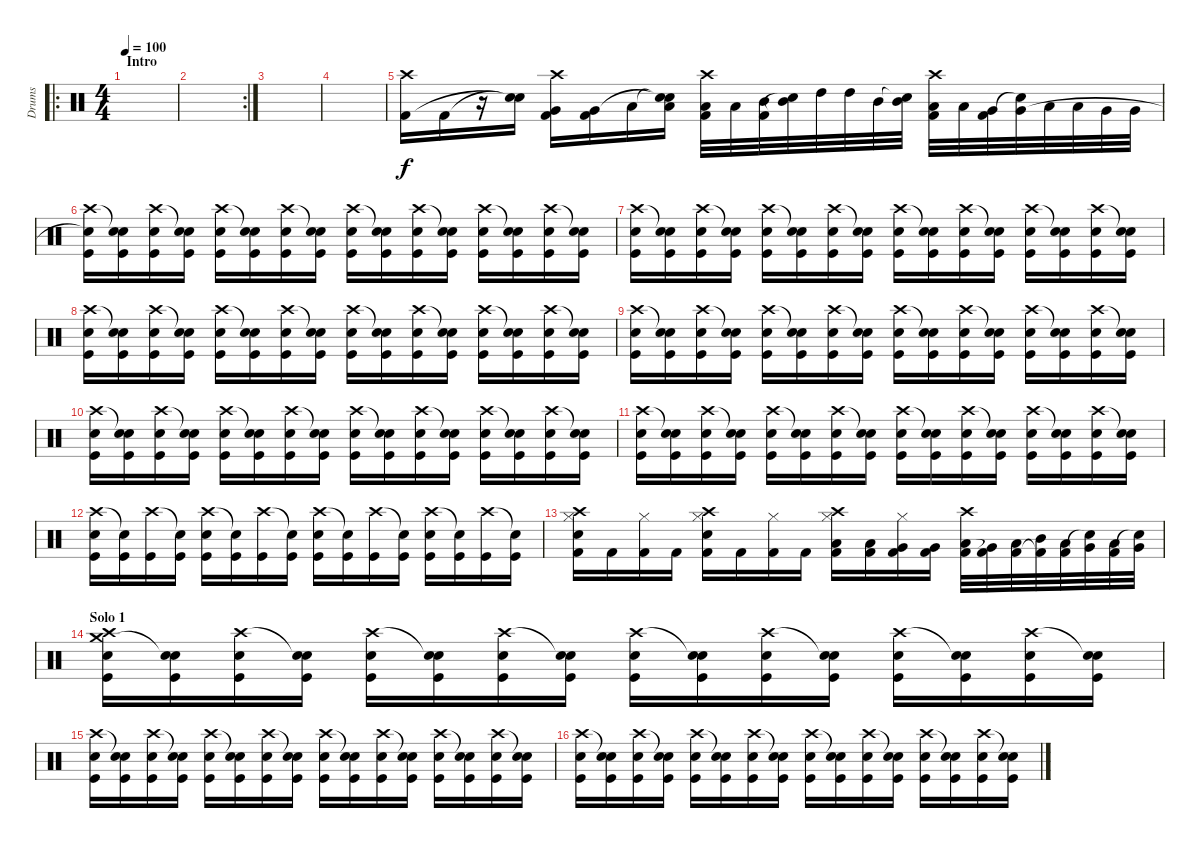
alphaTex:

\track ("Drums" "Drums") {instrument percussion}
\staff {score}
\articulation defaults
\ro
\ts (4 4)
\section ("" "Intro")
\tempo 100
\clef neutral
\ks c
|
\rc 2
|
|
|
("Crash high (hit)" "Kick (hit) 2").16 "Kick (hit) 2".16 r.16 ("Snare (hit)"{t} "Snare (hit)"{t}).16 ("Crash high (hit)" "Kick (hit) 2" "Very Low Tom (hit)").16 ("Kick (hit) 2" "Very Low Tom (hit)").16 "Low Floor Tom (hit)".16 ("Snare (hit)"{t} "Snare (hit)"{t} "Low Tom (hit)").16 ("Crash high (hit)" "Kick (hit) 2" "Low Tom (hit)").32 "Low Tom (hit)".32 ("Kick (hit) 2" "Mid Tom (hit)").32 ("Snare (hit)"{t} "Mid Tom (hit)").32 "High Tom (hit)".32 "High Tom (hit)".32 "Mid Tom (hit)".32 ("Snare (hit)"{t} "Mid Tom (hit)").32 ("Crash high (hit)" "Kick (hit) 2" "Low Tom (hit)").32 "Low Tom (hit)".32 ("Kick (hit) 2" "Very Low Tom (hit)").32 ("Snare (hit)"{t} "Very Low Tom (hit)").32 "Low Floor Tom (hit)".32 "Low Floor Tom (hit)".32 "Very Low Tom (hit)".32 "Very Low Tom (hit)".32 |
("Crash high (hit)" "Electric Snare (hit)"{t} "Kick (hit)").16 ("Snare (hit)"{t} "Electric Snare (hit)" "Kick (hit)").16 ("Crash high (hit)" "Electric Snare (hit)" "Kick (hit)").16 ("Snare (hit)"{t} "Electric Snare (hit)" "Kick (hit)").16 ("Crash high (hit)" "Electric Snare (hit)" "Kick (hit)").16 ("Snare (hit)"{t} "Electric Snare (hit)" "Kick (hit)").16 ("Crash high (hit)" "Electric Snare (hit)" "Kick (hit)").16 ("Snare (hit)"{t} "Electric Snare (hit)" "Kick (hit)").16 ("Crash high (hit)" "Electric Snare (hit)" "Kick (hit)").16 ("Snare (hit)"{t} "Electric Snare (hit)" "Kick (hit)").16 ("Crash high (hit)" "Electric Snare (hit)" "Kick (hit)").16 ("Snare (hit)"{t} "Electric Snare (hit)" "Kick (hit)").16 ("Crash high (hit)" "Electric Snare (hit)" "Kick (hit)").16 ("Snare (hit)"{t} "Electric Snare (hit)" "Kick (hit)").16 ("Crash high (hit)" "Electric Snare (hit)" "Kick (hit)").16 ("Snare (hit)"{t} "Electric Snare (hit)" "Kick (hit)").16 |
("Crash high (hit)" "Electric Snare (hit)" "Kick (hit)").16 ("Snare (hit)"{t} "Electric Snare (hit)" "Kick (hit)").16 ("Crash high (hit)" "Electric Snare (hit)" "Kick (hit)").16 ("Snare (hit)"{t} "Electric Snare (hit)" "Kick (hit)").16 ("Crash high (hit)" "Electric Snare (hit)" "Kick (hit)").16 ("Snare (hit)"{t} "Electric Snare (hit)" "Kick (hit)").16 ("Crash high (hit)" "Electric Snare (hit)" "Kick (hit)").16 ("Snare (hit)"{t} "Electric Snare (hit)" "Kick (hit)").16 ("Crash high (hit)" "Electric Snare (hit)" "Kick (hit)").16 ("Snare (hit)"{t} "Electric Snare (hit)" "Kick (hit)").16 ("Crash high (hit)" "Electric Snare (hit)" "Kick (hit)").16 ("Snare (hit)"{t} "Electric Snare (hit)" "Kick (hit)").16 ("Crash high (hit)" "Electric Snare (hit)" "Kick (hit)").16 ("Snare (hit)"{t} "Electric Snare (hit)" "Kick (hit)").16 ("Crash high (hit)" "Electric Snare (hit)" "Kick (hit)").16 ("Snare (hit)"{t} "Electric Snare (hit)" "Kick (hit)").16 |
("Crash high (hit)" "Electric Snare (hit)" "Kick (hit)").16 ("Snare (hit)"{t} "Electric Snare (hit)" "Kick (hit)").16 ("Crash high (hit)" "Electric Snare (hit)" "Kick (hit)").16 ("Snare (hit)"{t} "Electric Snare (hit)" "Kick (hit)").16 ("Crash high (hit)" "Electric Snare (hit)" "Kick (hit)").16 ("Snare (hit)"{t} "Electric Snare (hit)" "Kick (hit)").16 ("Crash high (hit)" "Electric Snare (hit)" "Kick (hit)").16 ("Snare (hit)"{t} "Electric Snare (hit)" "Kick (hit)").16 ("Crash high (hit)" "Electric Snare (hit)" "Kick (hit)").16 ("Snare (hit)"{t} "Electric Snare (hit)" "Kick (hit)").16 ("Crash high (hit)" "Electric Snare (hit)" "Kick (hit)").16 ("Snare (hit)"{t} "Electric Snare (hit)" "Kick (hit)").16 ("Crash high (hit)" "Electric Snare (hit)" "Kick (hit)").16 ("Snare (hit)"{t} "Electric Snare (hit)" "Kick (hit)").16 ("Crash high (hit)" "Electric Snare (hit)" "Kick (hit)").16 ("Snare (hit)"{t} "Electric Snare (hit)" "Kick (hit)").16 |
("Crash high (hit)" "Electric Snare (hit)" "Kick (hit)").16 ("Snare (hit)"{t} "Electric Snare (hit)" "Kick (hit)").16 ("Crash high (hit)" "Electric Snare (hit)" "Kick (hit)").16 ("Snare (hit)"{t} "Electric Snare (hit)" "Kick (hit)").16 ("Crash high (hit)" "Electric Snare (hit)" "Kick (hit)").16 ("Snare (hit)"{t} "Electric Snare (hit)" "Kick (hit)").16 ("Crash high (hit)" "Electric Snare (hit)" "Kick (hit)").16 ("Snare (hit)"{t} "Electric Snare (hit)" "Kick (hit)").16 ("Crash high (hit)" "Electric Snare (hit)" "Kick (hit)").16 ("Snare (hit)"{t} "Electric Snare (hit)" "Kick (hit)").16 ("Crash high (hit)" "Electric Snare (hit)" "Kick (hit)").16 ("Snare (hit)"{t} "Electric Snare (hit)" "Kick (hit)").16 ("Crash high (hit)" "Electric Snare (hit)" "Kick (hit)").16 ("Snare (hit)"{t} "Electric Snare (hit)" "Kick (hit)").16 ("Crash high (hit)" "Electric Snare (hit)" "Kick (hit)").16 ("Snare (hit)"{t} "Electric Snare (hit)" "Kick (hit)").16 |
("Crash high (hit)" "Electric Snare (hit)" "Kick (hit)").16 ("Snare (hit)"{t} "Electric Snare (hit)" "Kick (hit)").16 ("Crash high (hit)" "Electric Snare (hit)" "Kick (hit)").16 ("Snare (hit)"{t} "Electric Snare (hit)" "Kick (hit)").16 ("Crash high (hit)" "Electric Snare (hit)" "Kick (hit)").16 ("Snare (hit)"{t} "Electric Snare (hit)" "Kick (hit)").16 ("Crash high (hit)" "Electric Snare (hit)" "Kick (hit)").16 ("Snare (hit)"{t} "Electric Snare (hit)" "Kick (hit)").16 ("Crash high (hit)" "Electric Snare (hit)" "Kick (hit)").16 ("Snare (hit)"{t} "Electric Snare (hit)" "Kick (hit)").16 ("Crash high (hit)" "Electric Snare (hit)" "Kick (hit)").16 ("Snare (hit)"{t} "Electric Snare (hit)" "Kick (hit)").16 ("Crash high (hit)" "Electric Snare (hit)" "Kick (hit)").16 ("Snare (hit)"{t} "Electric Snare (hit)" "Kick (hit)").16 ("Crash high (hit)" "Electric Snare (hit)" "Kick (hit)").16 ("Snare (hit)"{t} "Electric Snare (hit)" "Kick (hit)").16 |
("Crash high (hit)" "Electric Snare (hit)" "Kick (hit)").16 ("Snare (hit)"{t} "Electric Snare (hit)" "Kick (hit)").16 ("Crash high (hit)" "Electric Snare (hit)" "Kick (hit)").16 ("Snare (hit)"{t} "Electric Snare (hit)" "Kick (hit)").16 ("Crash high (hit)" "Electric Snare (hit)" "Kick (hit)").16 ("Snare (hit)"{t} "Electric Snare (hit)" "Kick (hit)").16 ("Crash high (hit)" "Electric Snare (hit)" "Kick (hit)").16 ("Snare (hit)"{t} "Electric Snare (hit)" "Kick (hit)").16 ("Crash high (hit)" "Electric Snare (hit)" "Kick (hit)").16 ("Snare (hit)"{t} "Electric Snare (hit)" "Kick (hit)").16 ("Crash high (hit)" "Electric Snare (hit)" "Kick (hit)").16 ("Snare (hit)"{t} "Electric Snare (hit)" "Kick (hit)").16 ("Crash high (hit)" "Electric Snare (hit)" "Kick (hit)").16 ("Snare (hit)"{t} "Electric Snare (hit)" "Kick (hit)").16 ("Crash high (hit)" "Electric Snare (hit)" "Kick (hit)").16 ("Snare (hit)"{t} "Electric Snare (hit)" "Kick (hit)").16 |
("Crash high (hit)" "Electric Snare (hit)" "Kick (hit)").16 ("Snare (hit)"{t} "Kick (hit)").16 ("Crash high (hit)" "Kick (hit)").16 ("Snare (hit)"{t} "Kick (hit)").16 ("Crash high (hit)" "Electric Snare (hit)" "Kick (hit)").16 ("Snare (hit)"{t} "Kick (hit)").16 ("Crash high (hit)" "Kick (hit)").16 ("Snare (hit)"{t} "Kick (hit)").16 ("Crash high (hit)" "Electric Snare (hit)" "Kick (hit)").16 ("Snare (hit)"{t} "Kick (hit)").16 ("Crash high (hit)" "Kick (hit)").16 ("Snare (hit)"{t} "Kick (hit)").16 ("Crash high (hit)" "Electric Snare (hit)" "Kick (hit)").16 ("Snare (hit)"{t} "Kick (hit)").16 ("Crash high (hit)" "Kick (hit)").16 ("Snare (hit)"{t} "Kick (hit)").16 |
("Hi-Hat (closed)" "Crash high (hit)" "Electric Snare (hit)" "Kick (hit) 2").16 "Kick (hit) 2".16 ("Hi-Hat (closed)" "Kick (hit) 2").16 "Kick (hit) 2".16 ("Hi-Hat (closed)" "Crash high (hit)" "Electric Snare (hit)" "Kick (hit) 2").16 "Kick (hit) 2".16 ("Hi-Hat (closed)" "Kick (hit) 2").16 "Kick (hit) 2".16 ("Hi-Hat (closed)" "Crash high (hit)" "Low Floor Tom (hit)" "Kick (hit) 2").16 ("Low Floor Tom (hit)" "Kick (hit) 2").16 ("Hi-Hat (closed)" "Very Low Tom (hit)" "Kick (hit) 2").16 ("Very Low Tom (hit)" "Kick (hit) 2").16 ("Crash high (hit)" "Low Floor Tom (hit)" "Kick (hit) 2").32 ("Very Low Tom (hit)" "Kick (hit) 2"{t}).32 ("Low Tom (hit)" "Kick (hit) 2").32 ("Mid Tom (hit)" "Kick (hit) 2"{t}).32 ("Low Tom (hit)" "Kick (hit) 2").32 ("Very Low Tom (hit)" "Snare (hit)"{t}).32 ("Low Floor Tom (hit)" "Kick (hit) 2").32 ("Very Low Tom (hit)" "Snare (hit)"{t}).32 |
\section ("" "Solo 1")
("Crash medium (hit)" "Crash high (hit)" "Electric Snare (hit)" "Kick (hit)").16 ("Snare (hit)"{t} "Electric Snare (hit)" "Kick (hit)").16 ("Crash high (hit)" "Electric Snare (hit)" "Kick (hit)").16 ("Snare (hit)"{t} "Electric Snare (hit)" "Kick (hit)").16 ("Crash high (hit)" "Electric Snare (hit)" "Kick (hit)").16 ("Snare (hit)"{t} "Electric Snare (hit)" "Kick (hit)").16 ("Crash high (hit)" "Electric Snare (hit)" "Kick (hit)").16 ("Snare (hit)"{t} "Electric Snare (hit)" "Kick (hit)").16 ("Crash high (hit)" "Electric Snare (hit)" "Kick (hit)").16 ("Snare (hit)"{t} "Electric Snare (hit)" "Kick (hit)").16 ("Crash high (hit)" "Electric Snare (hit)" "Kick (hit)").16 ("Snare (hit)"{t} "Electric Snare (hit)" "Kick (hit)").16 ("Crash high (hit)" "Electric Snare (hit)" "Kick (hit)").16 ("Snare (hit)"{t} "Electric Snare (hit)" "Kick (hit)").16 ("Crash high (hit)" "Electric Snare (hit)" "Kick (hit)").16 ("Snare (hit)"{t} "Electric Snare (hit)" "Kick (hit)").16 |
("Crash high (hit)" "Electric Snare (hit)" "Kick (hit)").16 ("Snare (hit)"{t} "Electric Snare (hit)" "Kick (hit)").16 ("Crash high (hit)" "Electric Snare (hit)" "Kick (hit)").16 ("Snare (hit)"{t} "Electric Snare (hit)" "Kick (hit)").16 ("Crash high (hit)" "Electric Snare (hit)" "Kick (hit)").16 ("Snare (hit)"{t} "Electric Snare (hit)" "Kick (hit)").16 ("Crash high (hit)" "Electric Snare (hit)" "Kick (hit)").16 ("Snare (hit)"{t} "Electric Snare (hit)" "Kick (hit)").16 ("Crash high (hit)" "Electric Snare (hit)" "Kick (hit)").16 ("Snare (hit)"{t} "Electric Snare (hit)" "Kick (hit)").16 ("Crash high (hit)" "Electric Snare (hit)" "Kick (hit)").16 ("Snare (hit)"{t} "Electric Snare (hit)" "Kick (hit)").16 ("Crash high (hit)" "Electric Snare (hit)" "Kick (hit)").16 ("Snare (hit)"{t} "Electric Snare (hit)" "Kick (hit)").16 ("Crash high (hit)" "Electric Snare (hit)" "Kick (hit)").16 ("Snare (hit)"{t} "Electric Snare (hit)" "Kick (hit)").16 |
("Crash high (hit)" "Electric Snare (hit)" "Kick (hit)").16 ("Snare (hit)"{t} "Electric Snare (hit)" "Kick (hit)").16 ("Crash high (hit)" "Electric Snare (hit)" "Kick (hit)").16 ("Snare (hit)"{t} "Electric Snare (hit)" "Kick (hit)").16 ("Crash high (hit)" "Electric Snare (hit)" "Kick (hit)").16 ("Snare (hit)"{t} "Electric Snare (hit)" "Kick (hit)").16 ("Crash high (hit)" "Electric Snare (hit)" "Kick (hit)").16 ("Snare (hit)"{t} "Electric Snare (hit)" "Kick (hit)").16 ("Crash high (hit)" "Electric Snare (hit)" "Kick (hit)").16 ("Snare (hit)"{t} "Electric Snare (hit)" "Kick (hit)").16 ("Crash high (hit)" "Electric Snare (hit)" "Kick (hit)").16 ("Snare (hit)"{t} "Electric Snare (hit)" "Kick (hit)").16 ("Crash high (hit)" "Electric Snare (hit)" "Kick (hit)").16 ("Snare (hit)"{t} "Electric Snare (hit)" "Kick (hit)").16 ("Crash high (hit)" "Electric Snare (hit)" "Kick (hit)").16 ("Snare (hit)"{t} "Electric Snare (hit)" "Kick (hit)").16
